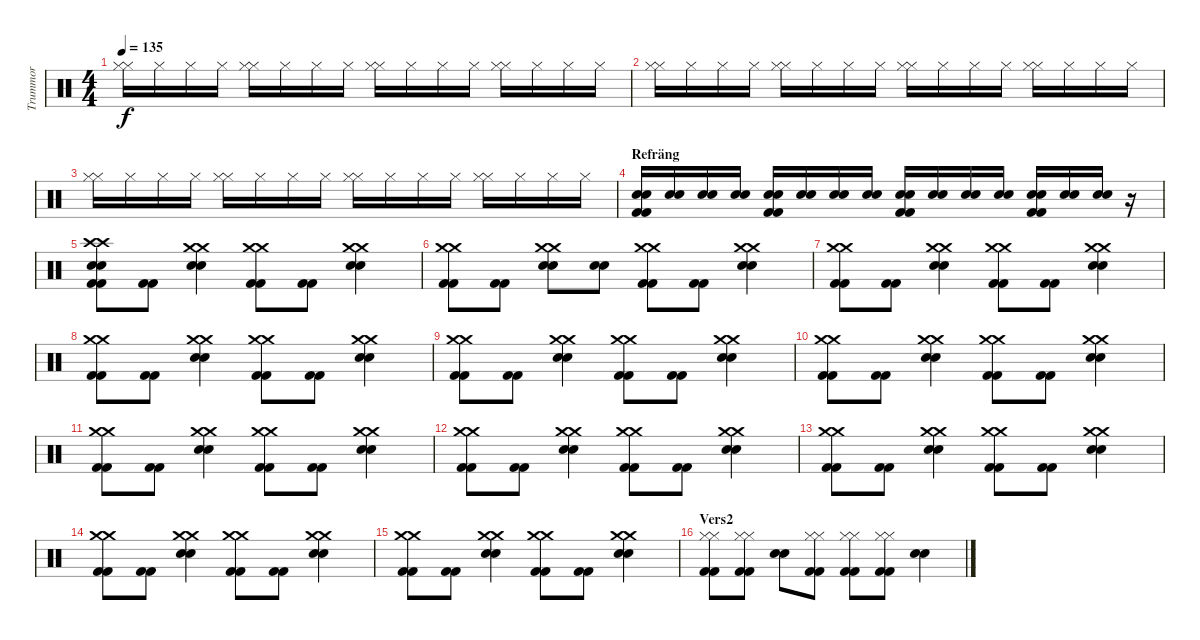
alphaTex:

\track ("Trummor" "Trummor") {instrument percussion}
\staff {score}
\articulation defaults
\ts (4 4)
\tempo 135
\clef neutral
\ks c
("Hi-Hat (closed)" "Hi-Hat (closed)").16{dy f} "Hi-Hat (closed)".16 "Hi-Hat (closed)".16 "Hi-Hat (closed)".16 ("Hi-Hat (closed)" "Hi-Hat (closed)").16 "Hi-Hat (closed)".16 "Hi-Hat (closed)".16 "Hi-Hat (closed)".16 ("Hi-Hat (closed)" "Hi-Hat (closed)").16 "Hi-Hat (closed)".16 "Hi-Hat (closed)".16 "Hi-Hat (closed)".16 ("Hi-Hat (closed)" "Hi-Hat (closed)").16 "Hi-Hat (closed)".16 "Hi-Hat (closed)".16 "Hi-Hat (closed)".16 |
("Hi-Hat (closed)" "Hi-Hat (closed)").16 "Hi-Hat (closed)".16 "Hi-Hat (closed)".16 "Hi-Hat (closed)".16 ("Hi-Hat (closed)" "Hi-Hat (closed)").16 "Hi-Hat (closed)".16 "Hi-Hat (closed)".16 "Hi-Hat (closed)".16 ("Hi-Hat (closed)" "Hi-Hat (closed)").16 "Hi-Hat (closed)".16 "Hi-Hat (closed)".16 "Hi-Hat (closed)".16 ("Hi-Hat (closed)" "Hi-Hat (closed)").16 "Hi-Hat (closed)".16 "Hi-Hat (closed)".16 "Hi-Hat (closed)".16 |
("Hi-Hat (closed)" "Hi-Hat (closed)").16 "Hi-Hat (closed)".16 "Hi-Hat (closed)".16 "Hi-Hat (closed)".16 ("Hi-Hat (closed)" "Hi-Hat (closed)").16 "Hi-Hat (closed)".16 "Hi-Hat (closed)".16 "Hi-Hat (closed)".16 ("Hi-Hat (closed)" "Hi-Hat (closed)").16 "Hi-Hat (closed)".16 "Hi-Hat (closed)".16 "Hi-Hat (closed)".16 ("Hi-Hat (closed)" "Hi-Hat (closed)").16 "Hi-Hat (closed)".16 "Hi-Hat (closed)".16 "Hi-Hat (closed)".16 |
\section ("" "Refräng")
("Kick (hit) 2" "Kick (hit) 2" "Snare (hit) 2" "Snare (hit) 2").16 ("Snare (hit) 2" "Snare (hit) 2").16 ("Snare (hit) 2" "Snare (hit) 2").16 ("Snare (hit) 2" "Snare (hit) 2").16 ("Kick (hit) 2" "Kick (hit) 2" "Snare (hit) 2" "Snare (hit) 2").16 ("Snare (hit) 2" "Snare (hit) 2").16 ("Snare (hit) 2" "Snare (hit) 2").16 ("Snare (hit) 2" "Snare (hit) 2").16 ("Kick (hit) 2" "Kick (hit) 2" "Snare (hit) 2" "Snare (hit) 2").16 ("Snare (hit) 2" "Snare (hit) 2").16 ("Snare (hit) 2" "Snare (hit) 2").16 ("Snare (hit) 2" "Snare (hit) 2").16 ("Kick (hit) 2" "Kick (hit) 2" "Snare (hit) 2" "Snare (hit) 2").16 ("Snare (hit) 2" "Snare (hit) 2").16 ("Snare (hit) 2" "Snare (hit) 2").16 r.16 |
("Crash high (hit)" "Crash high (hit)" "Snare (hit) 2" "Snare (hit) 2" "Kick (hit) 2" "Kick (hit) 2").8 ("Kick (hit) 2" "Kick (hit) 2").8 ("Crash medium (hit)" "Crash medium (hit)" "Snare (hit) 2" "Snare (hit) 2").4 ("Crash medium (hit)" "Crash medium (hit)" "Kick (hit) 2" "Kick (hit) 2").8 ("Kick (hit) 2" "Kick (hit) 2").8 ("Crash medium (hit)" "Crash medium (hit)" "Snare (hit) 2" "Snare (hit) 2").4 |
("Crash medium (hit)" "Crash medium (hit)" "Kick (hit) 2" "Kick (hit) 2").8 ("Kick (hit) 2" "Kick (hit) 2").8 ("Crash medium (hit)" "Crash medium (hit)" "Snare (hit) 2" "Snare (hit) 2").8 ("Snare (hit) 2" "Snare (hit) 2").8 ("Crash medium (hit)" "Crash medium (hit)" "Kick (hit) 2" "Kick (hit) 2").8 ("Kick (hit) 2" "Kick (hit) 2").8 ("Crash medium (hit)" "Crash medium (hit)" "Snare (hit) 2" "Snare (hit) 2").4 |
("Crash medium (hit)" "Crash medium (hit)" "Kick (hit) 2" "Kick (hit) 2").8 ("Kick (hit) 2" "Kick (hit) 2").8 ("Crash medium (hit)" "Crash medium (hit)" "Snare (hit) 2" "Snare (hit) 2").4 ("Crash medium (hit)" "Crash medium (hit)" "Kick (hit) 2" "Kick (hit) 2").8 ("Kick (hit) 2" "Kick (hit) 2").8 ("Crash medium (hit)" "Crash medium (hit)" "Snare (hit) 2" "Snare (hit) 2").4 |
("Crash medium (hit)" "Crash medium (hit)" "Kick (hit) 2" "Kick (hit) 2").8 ("Kick (hit) 2" "Kick (hit) 2").8 ("Crash medium (hit)" "Crash medium (hit)" "Snare (hit) 2" "Snare (hit) 2").4 ("Crash medium (hit)" "Crash medium (hit)" "Kick (hit) 2" "Kick (hit) 2").8 ("Kick (hit) 2" "Kick (hit) 2").8 ("Crash medium (hit)" "Crash medium (hit)" "Snare (hit) 2" "Snare (hit) 2").4 |
("Crash medium (hit)" "Crash medium (hit)" "Kick (hit) 2" "Kick (hit) 2").8 ("Kick (hit) 2" "Kick (hit) 2").8 ("Crash medium (hit)" "Crash medium (hit)" "Snare (hit) 2" "Snare (hit) 2").4 ("Crash medium (hit)" "Crash medium (hit)" "Kick (hit) 2" "Kick (hit) 2").8 ("Kick (hit) 2" "Kick (hit) 2").8 ("Crash medium (hit)" "Crash medium (hit)" "Snare (hit) 2" "Snare (hit) 2").4 |
("Crash medium (hit)" "Crash medium (hit)" "Kick (hit) 2" "Kick (hit) 2").8 ("Kick (hit) 2" "Kick (hit) 2").8 ("Crash medium (hit)" "Crash medium (hit)" "Snare (hit) 2" "Snare (hit) 2").4 ("Crash medium (hit)" "Crash medium (hit)" "Kick (hit) 2" "Kick (hit) 2").8 ("Kick (hit) 2" "Kick (hit) 2").8 ("Crash medium (hit)" "Crash medium (hit)" "Snare (hit) 2" "Snare (hit) 2").4 |
("Crash medium (hit)" "Crash medium (hit)" "Kick (hit) 2" "Kick (hit) 2").8 ("Kick (hit) 2" "Kick (hit) 2").8 ("Crash medium (hit)" "Crash medium (hit)" "Snare (hit) 2" "Snare (hit) 2").4 ("Crash medium (hit)" "Crash medium (hit)" "Kick (hit) 2" "Kick (hit) 2").8 ("Kick (hit) 2" "Kick (hit) 2").8 ("Crash medium (hit)" "Crash medium (hit)" "Snare (hit) 2" "Snare (hit) 2").4 |
("Crash medium (hit)" "Crash medium (hit)" "Kick (hit) 2" "Kick (hit) 2").8 ("Kick (hit) 2" "Kick (hit) 2").8 ("Crash medium (hit)" "Crash medium (hit)" "Snare (hit) 2" "Snare (hit) 2").4 ("Crash medium (hit)" "Crash medium (hit)" "Kick (hit) 2" "Kick (hit) 2").8 ("Kick (hit) 2" "Kick (hit) 2").8 ("Crash medium (hit)" "Crash medium (hit)" "Snare (hit) 2" "Snare (hit) 2").4 |
("Crash medium (hit)" "Crash medium (hit)" "Kick (hit) 2" "Kick (hit) 2").8 ("Kick (hit) 2" "Kick (hit) 2").8 ("Crash medium (hit)" "Crash medium (hit)" "Snare (hit) 2" "Snare (hit) 2").4 ("Crash medium (hit)" "Crash medium (hit)" "Kick (hit) 2" "Kick (hit) 2").8 ("Kick (hit) 2" "Kick (hit) 2").8 ("Crash medium (hit)" "Crash medium (hit)" "Snare (hit) 2" "Snare (hit) 2").4 |
("Crash medium (hit)" "Crash medium (hit)" "Kick (hit) 2" "Kick (hit) 2").8 ("Kick (hit) 2" "Kick (hit) 2").8 ("Crash medium (hit)" "Crash medium (hit)" "Snare (hit) 2" "Snare (hit) 2").4 ("Crash medium (hit)" "Crash medium (hit)" "Kick (hit) 2" "Kick (hit) 2").8 ("Kick (hit) 2" "Kick (hit) 2").8 ("Crash medium (hit)" "Crash medium (hit)" "Snare (hit) 2" "Snare (hit) 2").4 |
("Crash medium (hit)" "Crash medium (hit)" "Kick (hit) 2" "Kick (hit) 2").8 ("Kick (hit) 2" "Kick (hit) 2").8 ("Crash medium (hit)" "Crash medium (hit)" "Snare (hit) 2" "Snare (hit) 2").4 ("Crash medium (hit)" "Crash medium (hit)" "Kick (hit) 2" "Kick (hit) 2").8 ("Kick (hit) 2" "Kick (hit) 2").8 ("Crash medium (hit)" "Crash medium (hit)" "Snare (hit) 2" "Snare (hit) 2").4 |
\section ("" "Vers2")
("Hi-Hat (closed)" "Hi-Hat (closed)" "Kick (hit) 2" "Kick (hit) 2").8 ("Hi-Hat (closed)" "Hi-Hat (closed)" "Kick (hit) 2" "Kick (hit) 2").8 ("Snare (hit) 2" "Snare (hit) 2").8 ("Hi-Hat (closed)" "Hi-Hat (closed)" "Kick (hit) 2" "Kick (hit) 2").8 ("Hi-Hat (closed)" "Hi-Hat (closed)" "Kick (hit) 2" "Kick (hit) 2").8 ("Hi-Hat (closed)" "Hi-Hat (closed)" "Kick (hit) 2" "Kick (hit) 2").8 ("Snare (hit) 2" "Snare (hit) 2").4
